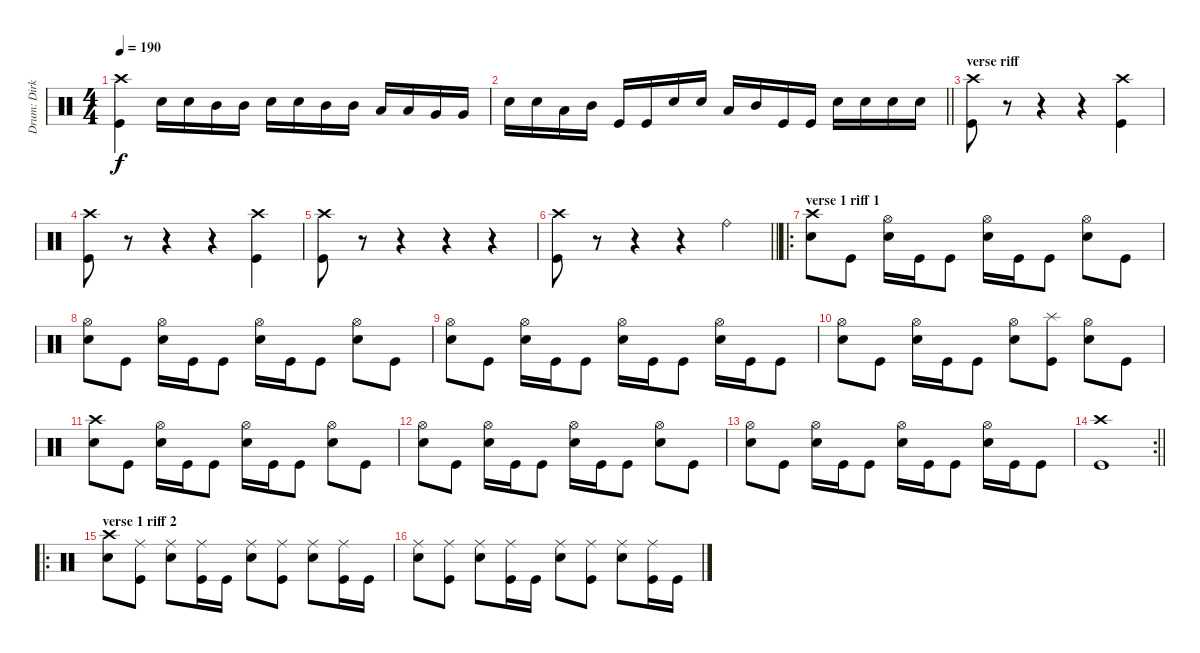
\track ("Drum: Dirk" "Drum: Dirk") {instrument percussion}
\staff {score}
\articulation defaults
\ts (4 4)
\tempo 190
\clef neutral
\ks c
("Crash high (hit)" "Kick (hit)").4{dy f} "Electric Snare (hit)".16 "Electric Snare (hit)".16 "Mid Tom (hit)".16 "Mid Tom (hit)".16 "Electric Snare (hit)".16 "Electric Snare (hit)".16 "Mid Tom (hit)".16 "Mid Tom (hit)".16 "Low Tom (hit)".16 "Low Tom (hit)".16 "Very Low Tom (hit)".16 "Very Low Tom (hit)".16 |
\barLineRight lightlight "Electric Snare (hit)".16 "Electric Snare (hit)".16 "Low Tom (hit)".16 "Mid Tom (hit)".16 "Kick (hit)".16 "Kick (hit)".16 "Electric Snare (hit)".16 "Electric Snare (hit)".16 "Low Tom (hit)".16 "Mid Tom (hit)".16 "Kick (hit)".16 "Kick (hit)".16 "Electric Snare (hit)".16 "Electric Snare (hit)".16 "Electric Snare (hit)".16 "Electric Snare (hit)".16
|
\section ("" "verse riff")
("Crash high (hit)" "Kick (hit)").8 r.8{volume 0} r.4 r.4 ("Crash high (hit)" "Kick (hit)").4{volume 12} |
("Crash high (hit)" "Kick (hit)").8 r.8{volume 0} r.4 r.4 ("Crash high (hit)" "Kick (hit)").4{volume 12} |
("Crash high (hit)" "Kick (hit)").8 r.8{volume 0} r.4 r.4 r.4 |
\barLineRight lightlight
("Crash high (hit)" "Kick (hit)").8{volume 12} r.8{volume 0} r.4 r.4 "Ride (bell)".4{volume 12} |
\ro
\section ("" "verse 1 riff 1")
("Crash high (hit)" "Electric Snare (hit)").8 "Kick (hit)".8 ("Hi-Hat (open)" "Electric Snare (hit)").16 "Kick (hit)".16 "Kick (hit)".8 ("Hi-Hat (open)" "Electric Snare (hit)").16 "Kick (hit)".16 "Kick (hit)".8 ("Hi-Hat (open)" "Electric Snare (hit)").8 "Kick (hit)".8 |
("Hi-Hat (open)" "Electric Snare (hit)").8 "Kick (hit)".8 ("Hi-Hat (open)" "Electric Snare (hit)").16 "Kick (hit)".16 "Kick (hit)".8 ("Hi-Hat (open)" "Electric Snare (hit)").16 "Kick (hit)".16 "Kick (hit)".8 ("Hi-Hat (open)" "Electric Snare (hit)").8 "Kick (hit)".8 |
("Hi-Hat (open)" "Electric Snare (hit)").8 "Kick (hit)".8 ("Hi-Hat (open)" "Electric Snare (hit)").16 "Kick (hit)".16 "Kick (hit)".8 ("Hi-Hat (open)" "Electric Snare (hit)").16 "Kick (hit)".16 "Kick (hit)".8 ("Hi-Hat (open)" "Electric Snare (hit)").16 "Kick (hit)".16 "Kick (hit)".8 |
("Hi-Hat (open)" "Electric Snare (hit)").8 "Kick (hit)".8 ("Hi-Hat (open)" "Electric Snare (hit)").16 "Kick (hit)".16 "Kick (hit)".8 ("Hi-Hat (open)" "Electric Snare (hit)").8 ("Splash (hit)" "Kick (hit)").8 ("Hi-Hat (open)" "Electric Snare (hit)").8 "Kick (hit)".8 |
("Crash high (hit)" "Electric Snare (hit)").8 "Kick (hit)".8 ("Hi-Hat (open)" "Electric Snare (hit)").16 "Kick (hit)".16 "Kick (hit)".8 ("Hi-Hat (open)" "Electric Snare (hit)").16 "Kick (hit)".16 "Kick (hit)".8 ("Hi-Hat (open)" "Electric Snare (hit)").8 "Kick (hit)".8 |
("Hi-Hat (open)" "Electric Snare (hit)").8 "Kick (hit)".8 ("Hi-Hat (open)" "Electric Snare (hit)").16 "Kick (hit)".16 "Kick (hit)".8 ("Hi-Hat (open)" "Electric Snare (hit)").16 "Kick (hit)".16 "Kick (hit)".8 ("Hi-Hat (open)" "Electric Snare (hit)").8 "Kick (hit)".8 |
("Hi-Hat (open)" "Electric Snare (hit)").8 "Kick (hit)".8 ("Hi-Hat (open)" "Electric Snare (hit)").16 "Kick (hit)".16 "Kick (hit)".8 ("Hi-Hat (open)" "Electric Snare (hit)").16 "Kick (hit)".16 "Kick (hit)".8 ("Hi-Hat (open)" "Electric Snare (hit)").16 "Kick (hit)".16 "Kick (hit)".8 |
\rc 2
\barLineRight lightlight
("Crash high (hit)" "Kick (hit)").1 |
\ro
\section ("" "verse 1 riff 2")
("Crash high (hit)" "Electric Snare (hit)").8 ("Ride (middle)" "Kick (hit)").8 ("Ride (middle)" "Electric Snare (hit)").8 ("Ride (middle)" "Kick (hit)").16 "Kick (hit)".16 ("Ride (middle)" "Electric Snare (hit)").8 ("Ride (middle)" "Kick (hit)").8 ("Ride (middle)" "Electric Snare (hit)").8 ("Ride (middle)" "Kick (hit)").16 "Kick (hit)".16 |
("Ride (middle)" "Electric Snare (hit)").8 ("Ride (middle)" "Kick (hit)").8 ("Ride (middle)" "Electric Snare (hit)").8 ("Ride (middle)" "Kick (hit)").16 "Kick (hit)".16 ("Ride (middle)" "Electric Snare (hit)").8 ("Ride (middle)" "Kick (hit)").8 ("Ride (middle)" "Electric Snare (hit)").8 ("Ride (middle)" "Kick (hit)").16 "Kick (hit)".16
